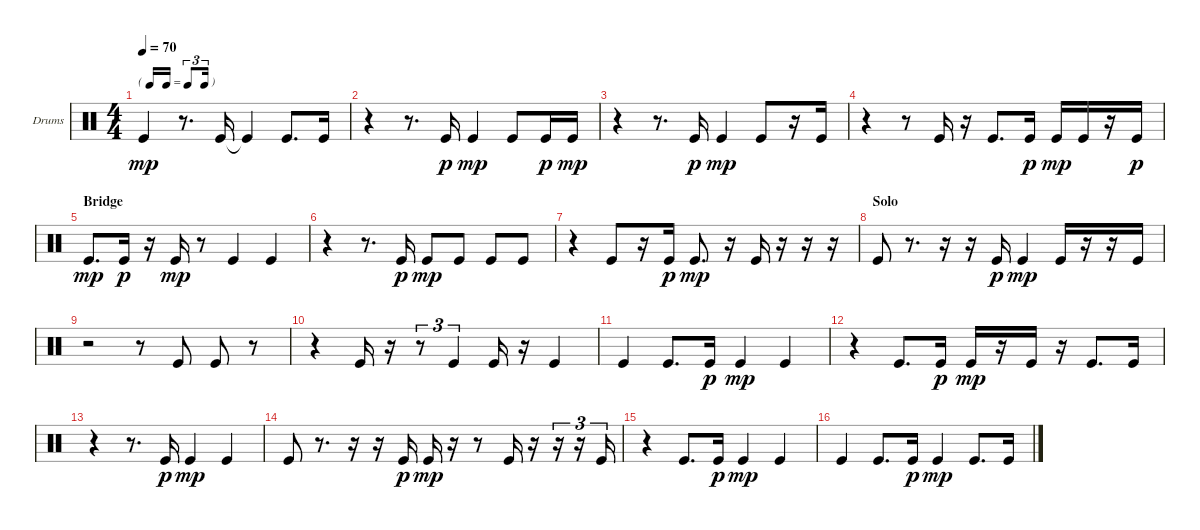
\bracketExtendMode groupsimilarinstruments
\firstSystemTrackNameOrientation horizontal
\otherSystemsTrackNameOrientation horizontal
\track ("Kick" "Drums") {instrument percussion}
\staff {score}
\articulation defaults
\ts (4 4)
\tf triplet16th
\tempo 70
\clef neutral
\ks aminor "Kick (hit)".4{dy mp}
r.8{d} "Kick (hit)".16 "Kick (hit)"{t}.4 "Kick (hit)".8{d} "Kick (hit)".16 |
r.4 r.8{d} "Kick (hit)".16{dy p} "Kick (hit)".4{dy mp} "Kick (hit)".8 "Kick (hit)".16{dy p} "Kick (hit)".16{dy mp} |
r.4 r.8{d} "Kick (hit)".16{dy p} "Kick (hit)".4{dy mp} "Kick (hit)".8 r.16 "Kick (hit)".16 |
r.4 r.8 "Kick (hit)".16 r.16 "Kick (hit)".8{d} "Kick (hit)".16{dy p} "Kick (hit)".16{dy mp} "Kick (hit)".16 r.16 "Kick (hit)".16{dy p} |
\section ("" "Bridge")
"Kick (hit)".8{d dy mp} "Kick (hit)".16{dy p} r.16 "Kick (hit)".16{dy mp} r.8 "Kick (hit)".4 "Kick (hit)".4 |
r.4 r.8{d} "Kick (hit)".16{dy p} "Kick (hit)".8{dy mp} "Kick (hit)".8 "Kick (hit)".8 "Kick (hit)".8 |
r.4 "Kick (hit)".8 r.16 "Kick (hit)".16{dy p} "Kick (hit)".8{d dy mp} r.16 "Kick (hit)".16 r.16 r.16 r.16 |
\section ("" "Solo")
"Kick (hit)".8 r.8{d} r.16 r.16 "Kick (hit)".16{dy p} "Kick (hit)".4{dy mp} "Kick (hit)".16 r.16 r.16 "Kick (hit)".16 |
r.2 r.8 "Kick (hit)".8 "Kick (hit)".8 r.8 |
r.4 "Kick (hit)".16 r.16 r.8{tu (3 2)} "Kick (hit)".4{tu (3 2)} "Kick (hit)".16 r.16 "Kick (hit)".4 |
"Kick (hit)".4 "Kick (hit)".8{d} "Kick (hit)".16{dy p} "Kick (hit)".4{dy mp} "Kick (hit)".4 |
r.4 "Kick (hit)".8{d} "Kick (hit)".16{dy p} "Kick (hit)".16{dy mp} r.16 "Kick (hit)".16 r.16 "Kick (hit)".8{d} "Kick (hit)".16 |
r.4 r.8{d} "Kick (hit)".16{dy p} "Kick (hit)".4{dy mp} "Kick (hit)".4 |
"Kick (hit)".8 r.8{d} r.16 r.16 "Kick (hit)".16{dy p} "Kick (hit)".16{dy mp} r.16 r.8 "Kick (hit)".16 r.16 r.16{tu (3 2)} r.16{tu (3 2)} "Kick (hit)".16{tu (3 2)} |
r.4 "Kick (hit)".8{d} "Kick (hit)".16{dy p} "Kick (hit)".4{dy mp} "Kick (hit)".4 |
"Kick (hit)".4 "Kick (hit)".8{d} "Kick (hit)".16{dy p} "Kick (hit)".4{dy mp} "Kick (hit)".8{d} "Kick (hit)".16
